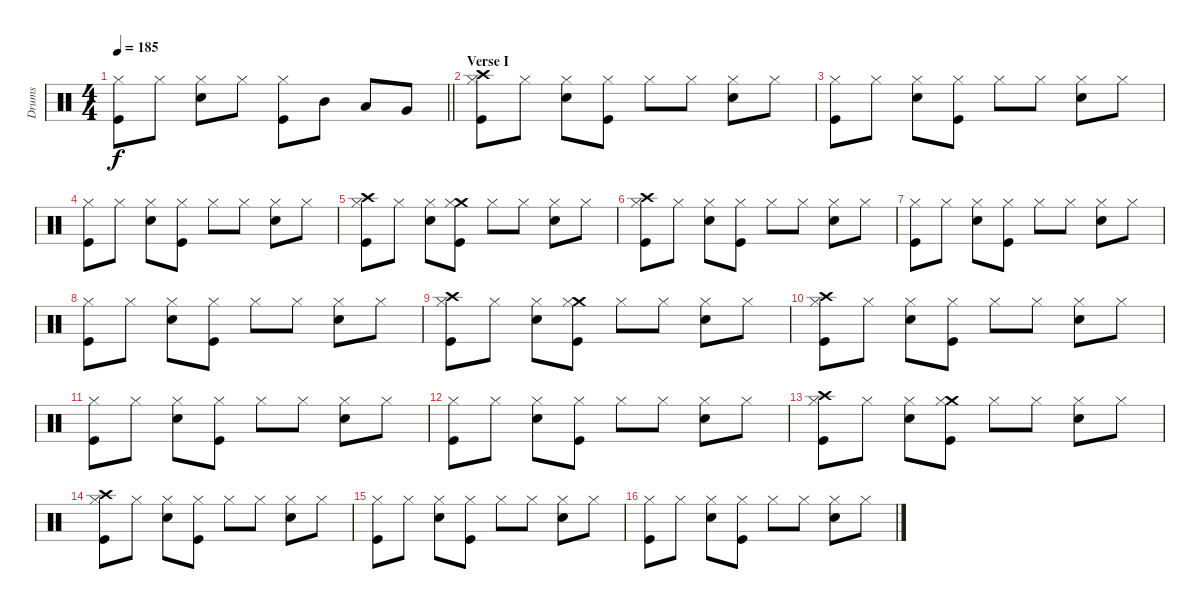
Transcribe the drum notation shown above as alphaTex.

\track ("Drums" "Drums") {instrument percussion}
\staff {score}
\articulation defaults
\ts (4 4)
\tempo 185
\clef neutral
\barLineRight lightlight
\ks c
("Kick (hit)" "Hi-Hat (closed)").8{dy f} "Hi-Hat (closed)".8 ("Snare (hit) 2" "Hi-Hat (closed)").8 "Hi-Hat (closed)".8 ("Kick (hit)" "Hi-Hat (closed)").8 "Mid Tom (hit)".8 "Low Tom (hit)".8 "Very Low Tom (hit)".8 |
\section ("" "Verse I")
("Kick (hit)" "Crash high (hit)" "Hi-Hat (closed)").8 "Hi-Hat (closed)".8 ("Snare (hit) 2" "Hi-Hat (closed)").8 ("Kick (hit)" "Hi-Hat (closed)").8 "Hi-Hat (closed)".8 "Hi-Hat (closed)".8 ("Snare (hit) 2" "Hi-Hat (closed)").8 "Hi-Hat (closed)".8 |
("Kick (hit)" "Hi-Hat (closed)").8 "Hi-Hat (closed)".8 ("Snare (hit) 2" "Hi-Hat (closed)").8 ("Kick (hit)" "Hi-Hat (closed)").8 "Hi-Hat (closed)".8 "Hi-Hat (closed)".8 ("Snare (hit) 2" "Hi-Hat (closed)").8 "Hi-Hat (closed)".8 |
("Kick (hit)" "Hi-Hat (closed)").8 "Hi-Hat (closed)".8 ("Snare (hit) 2" "Hi-Hat (closed)").8 ("Kick (hit)" "Hi-Hat (closed)").8 "Hi-Hat (closed)".8 "Hi-Hat (closed)".8 ("Snare (hit) 2" "Hi-Hat (closed)").8 "Hi-Hat (closed)".8 |
("Kick (hit)" "Crash high (hit)" "Hi-Hat (closed)").8 "Hi-Hat (closed)".8 ("Snare (hit) 2" "Hi-Hat (closed)").8 ("Kick (hit)" "Crash medium (hit)" "Hi-Hat (closed)").8 "Hi-Hat (closed)".8 "Hi-Hat (closed)".8 ("Snare (hit) 2" "Hi-Hat (closed)").8 "Hi-Hat (closed)".8 |
("Kick (hit)" "Crash high (hit)" "Hi-Hat (closed)").8 "Hi-Hat (closed)".8 ("Snare (hit) 2" "Hi-Hat (closed)").8 ("Kick (hit)" "Hi-Hat (closed)").8 "Hi-Hat (closed)".8 "Hi-Hat (closed)".8 ("Snare (hit) 2" "Hi-Hat (closed)").8 "Hi-Hat (closed)".8 |
("Kick (hit)" "Hi-Hat (closed)").8 "Hi-Hat (closed)".8 ("Snare (hit) 2" "Hi-Hat (closed)").8 ("Kick (hit)" "Hi-Hat (closed)").8 "Hi-Hat (closed)".8 "Hi-Hat (closed)".8 ("Snare (hit) 2" "Hi-Hat (closed)").8 "Hi-Hat (closed)".8 |
("Kick (hit)" "Hi-Hat (closed)").8 "Hi-Hat (closed)".8 ("Snare (hit) 2" "Hi-Hat (closed)").8 ("Kick (hit)" "Hi-Hat (closed)").8 "Hi-Hat (closed)".8 "Hi-Hat (closed)".8 ("Snare (hit) 2" "Hi-Hat (closed)").8 "Hi-Hat (closed)".8 |
("Kick (hit)" "Crash high (hit)" "Hi-Hat (closed)").8 "Hi-Hat (closed)".8 ("Snare (hit) 2" "Hi-Hat (closed)").8 ("Kick (hit)" "Crash medium (hit)" "Hi-Hat (closed)").8 "Hi-Hat (closed)".8 "Hi-Hat (closed)".8 ("Snare (hit) 2" "Hi-Hat (closed)").8 "Hi-Hat (closed)".8 |
("Kick (hit)" "Crash high (hit)" "Hi-Hat (closed)").8 "Hi-Hat (closed)".8 ("Snare (hit) 2" "Hi-Hat (closed)").8 ("Kick (hit)" "Hi-Hat (closed)").8 "Hi-Hat (closed)".8 "Hi-Hat (closed)".8 ("Snare (hit) 2" "Hi-Hat (closed)").8 "Hi-Hat (closed)".8 |
("Kick (hit)" "Hi-Hat (closed)").8 "Hi-Hat (closed)".8 ("Snare (hit) 2" "Hi-Hat (closed)").8 ("Kick (hit)" "Hi-Hat (closed)").8 "Hi-Hat (closed)".8 "Hi-Hat (closed)".8 ("Snare (hit) 2" "Hi-Hat (closed)").8 "Hi-Hat (closed)".8 |
("Kick (hit)" "Hi-Hat (closed)").8 "Hi-Hat (closed)".8 ("Snare (hit) 2" "Hi-Hat (closed)").8 ("Kick (hit)" "Hi-Hat (closed)").8 "Hi-Hat (closed)".8 "Hi-Hat (closed)".8 ("Snare (hit) 2" "Hi-Hat (closed)").8 "Hi-Hat (closed)".8 |
("Kick (hit)" "Crash high (hit)" "Hi-Hat (closed)").8 "Hi-Hat (closed)".8 ("Snare (hit) 2" "Hi-Hat (closed)").8 ("Kick (hit)" "Crash medium (hit)" "Hi-Hat (closed)").8 "Hi-Hat (closed)".8 "Hi-Hat (closed)".8 ("Snare (hit) 2" "Hi-Hat (closed)").8 "Hi-Hat (closed)".8 |
("Kick (hit)" "Crash high (hit)" "Hi-Hat (closed)").8 "Hi-Hat (closed)".8 ("Snare (hit) 2" "Hi-Hat (closed)").8 ("Kick (hit)" "Hi-Hat (closed)").8 "Hi-Hat (closed)".8 "Hi-Hat (closed)".8 ("Snare (hit) 2" "Hi-Hat (closed)").8 "Hi-Hat (closed)".8 |
("Kick (hit)" "Hi-Hat (closed)").8 "Hi-Hat (closed)".8 ("Snare (hit) 2" "Hi-Hat (closed)").8 ("Kick (hit)" "Hi-Hat (closed)").8 "Hi-Hat (closed)".8 "Hi-Hat (closed)".8 ("Snare (hit) 2" "Hi-Hat (closed)").8 "Hi-Hat (closed)".8 |
("Kick (hit)" "Hi-Hat (closed)").8 "Hi-Hat (closed)".8 ("Snare (hit) 2" "Hi-Hat (closed)").8 ("Kick (hit)" "Hi-Hat (closed)").8 "Hi-Hat (closed)".8 "Hi-Hat (closed)".8 ("Snare (hit) 2" "Hi-Hat (closed)").8 "Hi-Hat (closed)".8
